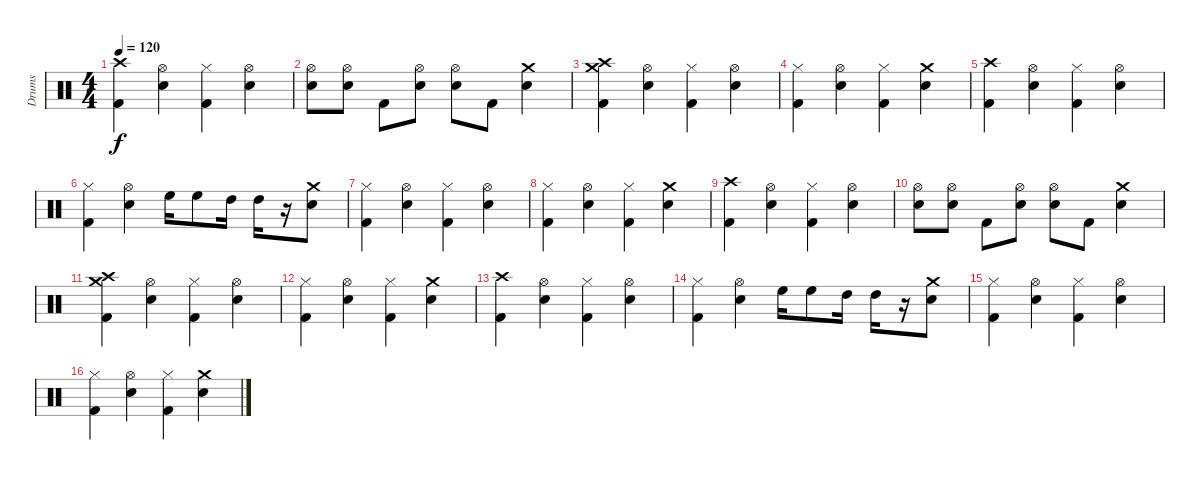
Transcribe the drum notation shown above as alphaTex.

\track ("Drums" "Drums") {instrument percussion}
\staff {score}
\articulation defaults
\ts (4 4)
\tempo 120
\clef neutral
\ks c
("Kick (hit) 2" "Crash high (hit)").4{dy f} ("Electric Snare (hit)" "Hi-Hat (open)").4 ("Kick (hit) 2" "Hi-Hat (closed)").4 ("Electric Snare (hit)" "Hi-Hat (open)").4 |
("Electric Snare (hit)" "Hi-Hat (open)").8 ("Electric Snare (hit)" "Hi-Hat (open)").8 "Kick (hit) 2".8 ("Electric Snare (hit)" "Hi-Hat (open)").8 ("Electric Snare (hit)" "Hi-Hat (open)").8 "Kick (hit) 2".8 ("Electric Snare (hit)" "Crash medium (hit)").4 |
("Kick (hit) 2" "Crash medium (hit)" "Crash high (hit)").4 ("Electric Snare (hit)" "Hi-Hat (open)").4 ("Kick (hit) 2" "Hi-Hat (closed)").4 ("Electric Snare (hit)" "Hi-Hat (open)").4 |
("Kick (hit) 2" "Hi-Hat (closed)").4 ("Electric Snare (hit)" "Hi-Hat (open)").4 ("Kick (hit) 2" "Hi-Hat (closed)").4 ("Electric Snare (hit)" "Crash medium (hit)").4 |
("Kick (hit) 2" "Crash high (hit)").4 ("Electric Snare (hit)" "Hi-Hat (open)").4 ("Kick (hit) 2" "Hi-Hat (closed)").4 ("Electric Snare (hit)" "Hi-Hat (open)").4 |
("Kick (hit) 2" "Hi-Hat (closed)").4 ("Electric Snare (hit)" "Hi-Hat (open)").4 "High Floor Tom (hit)".16 "High Floor Tom (hit)".8 "High Tom (hit)".16 "High Tom (hit)".16 r.16 ("Electric Snare (hit)" "Crash medium (hit)").8 |
("Kick (hit) 2" "Hi-Hat (closed)").4 ("Electric Snare (hit)" "Hi-Hat (open)").4 ("Kick (hit) 2" "Hi-Hat (closed)").4 ("Electric Snare (hit)" "Hi-Hat (open)").4 |
("Kick (hit) 2" "Hi-Hat (closed)").4 ("Electric Snare (hit)" "Hi-Hat (open)").4 ("Kick (hit) 2" "Hi-Hat (closed)").4 ("Electric Snare (hit)" "Crash medium (hit)").4 |
("Kick (hit) 2" "Crash high (hit)").4 ("Electric Snare (hit)" "Hi-Hat (open)").4 ("Kick (hit) 2" "Hi-Hat (closed)").4 ("Electric Snare (hit)" "Hi-Hat (open)").4 |
("Electric Snare (hit)" "Hi-Hat (open)").8 ("Electric Snare (hit)" "Hi-Hat (open)").8 "Kick (hit) 2".8 ("Electric Snare (hit)" "Hi-Hat (open)").8 ("Electric Snare (hit)" "Hi-Hat (open)").8 "Kick (hit) 2".8 ("Electric Snare (hit)" "Crash medium (hit)").4 |
("Kick (hit) 2" "Crash medium (hit)" "Crash high (hit)").4 ("Electric Snare (hit)" "Hi-Hat (open)").4 ("Kick (hit) 2" "Hi-Hat (closed)").4 ("Electric Snare (hit)" "Hi-Hat (open)").4 |
("Kick (hit) 2" "Hi-Hat (closed)").4 ("Electric Snare (hit)" "Hi-Hat (open)").4 ("Kick (hit) 2" "Hi-Hat (closed)").4 ("Electric Snare (hit)" "Crash medium (hit)").4 |
("Kick (hit) 2" "Crash high (hit)").4 ("Electric Snare (hit)" "Hi-Hat (open)").4 ("Kick (hit) 2" "Hi-Hat (closed)").4 ("Electric Snare (hit)" "Hi-Hat (open)").4 |
("Kick (hit) 2" "Hi-Hat (closed)").4 ("Electric Snare (hit)" "Hi-Hat (open)").4 "High Floor Tom (hit)".16 "High Floor Tom (hit)".8 "High Tom (hit)".16 "High Tom (hit)".16 r.16 ("Electric Snare (hit)" "Crash medium (hit)").8 |
("Kick (hit) 2" "Hi-Hat (closed)").4 ("Electric Snare (hit)" "Hi-Hat (open)").4 ("Kick (hit) 2" "Hi-Hat (closed)").4 ("Electric Snare (hit)" "Hi-Hat (open)").4 |
("Kick (hit) 2" "Hi-Hat (closed)").4 ("Electric Snare (hit)" "Hi-Hat (open)").4 ("Kick (hit) 2" "Hi-Hat (closed)").4 ("Electric Snare (hit)" "Crash medium (hit)").4
